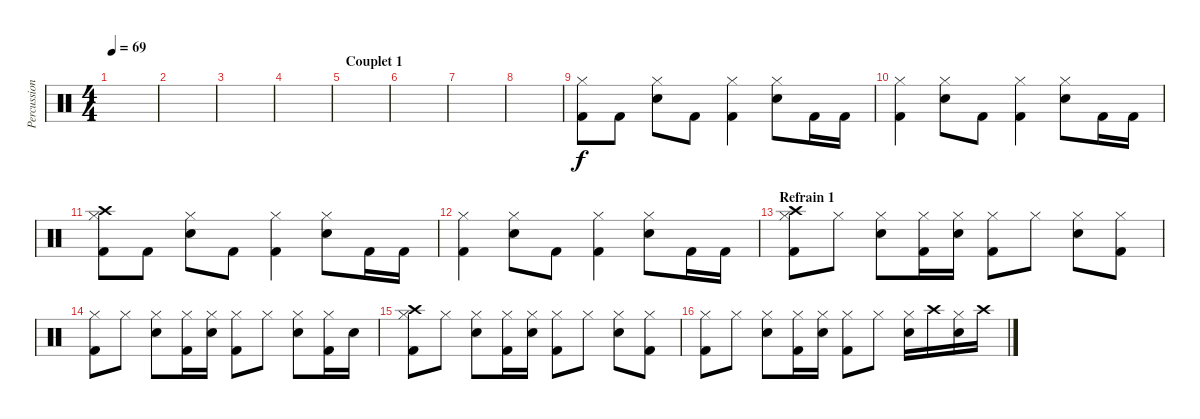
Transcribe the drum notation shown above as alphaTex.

\track ("Percussions" "Percussion") {instrument percussion}
\staff {score}
\articulation defaults
\ts (4 4)
\tempo 69
\clef neutral
\ks c
|
|
|
|
\section ("" "Couplet 1")
|
|
|
|
("Kick (hit) 2" "Hi-Hat (closed)").8 "Kick (hit) 2".8 ("Electric Snare (hit)" "Hi-Hat (closed)").8 "Kick (hit) 2".8 ("Kick (hit) 2" "Hi-Hat (closed)").4 ("Electric Snare (hit)" "Hi-Hat (closed)").8 "Kick (hit) 2".16 "Kick (hit) 2".16 |
("Kick (hit) 2" "Hi-Hat (closed)").4 ("Electric Snare (hit)" "Hi-Hat (closed)").8 "Kick (hit) 2".8 ("Kick (hit) 2" "Hi-Hat (closed)").4 ("Electric Snare (hit)" "Hi-Hat (closed)").8 "Kick (hit) 2".16 "Kick (hit) 2".16 |
("Crash high (hit)" "Kick (hit) 2" "Hi-Hat (closed)").8 "Kick (hit) 2".8 ("Electric Snare (hit)" "Hi-Hat (closed)").8 "Kick (hit) 2".8 ("Kick (hit) 2" "Hi-Hat (closed)").4 ("Electric Snare (hit)" "Hi-Hat (closed)").8 "Kick (hit) 2".16 "Kick (hit) 2".16 |
("Kick (hit) 2" "Hi-Hat (closed)").4 ("Electric Snare (hit)" "Hi-Hat (closed)").8 "Kick (hit) 2".8 ("Kick (hit) 2" "Hi-Hat (closed)").4 ("Electric Snare (hit)" "Hi-Hat (closed)").8 "Kick (hit) 2".16 "Kick (hit) 2".16 |
\section ("" "Refrain 1")
("Crash high (hit)" "Kick (hit) 2" "Hi-Hat (closed)").8 "Hi-Hat (closed)".8 ("Electric Snare (hit)" "Hi-Hat (closed)").8 ("Kick (hit) 2" "Hi-Hat (closed)").16 ("Electric Snare (hit)" "Hi-Hat (closed)").16 ("Kick (hit) 2" "Hi-Hat (closed)").8 "Hi-Hat (closed)".8 ("Electric Snare (hit)" "Hi-Hat (closed)").8 ("Kick (hit) 2" "Hi-Hat (closed)").8 |
("Kick (hit) 2" "Hi-Hat (closed)").8 "Hi-Hat (closed)".8 ("Electric Snare (hit)" "Hi-Hat (closed)").8 ("Kick (hit) 2" "Hi-Hat (closed)").16 ("Electric Snare (hit)" "Hi-Hat (closed)").16 ("Kick (hit) 2" "Hi-Hat (closed)").8 "Hi-Hat (closed)".8 ("Electric Snare (hit)" "Hi-Hat (closed)").8 ("Kick (hit) 2" "Hi-Hat (closed)").16 "Electric Snare (hit)".16 |
("Crash high (hit)" "Kick (hit) 2" "Hi-Hat (closed)").8 "Hi-Hat (closed)".8 ("Electric Snare (hit)" "Hi-Hat (closed)").8 ("Kick (hit) 2" "Hi-Hat (closed)").16 ("Electric Snare (hit)" "Hi-Hat (closed)").16 ("Kick (hit) 2" "Hi-Hat (closed)").8 "Hi-Hat (closed)".8 ("Electric Snare (hit)" "Hi-Hat (closed)").8 ("Kick (hit) 2" "Hi-Hat (closed)").8 |
("Kick (hit) 2" "Hi-Hat (closed)").8 "Hi-Hat (closed)".8 ("Electric Snare (hit)" "Hi-Hat (closed)").8 ("Kick (hit) 2" "Hi-Hat (closed)").16 ("Electric Snare (hit)" "Hi-Hat (closed)").16 ("Kick (hit) 2" "Hi-Hat (closed)").8 "Hi-Hat (closed)".8 ("Electric Snare (hit)" "Hi-Hat (closed)").16 "Crash high (hit)".16 ("Electric Snare (hit)" "Hi-Hat (closed)").16 "Crash high (hit)".16
